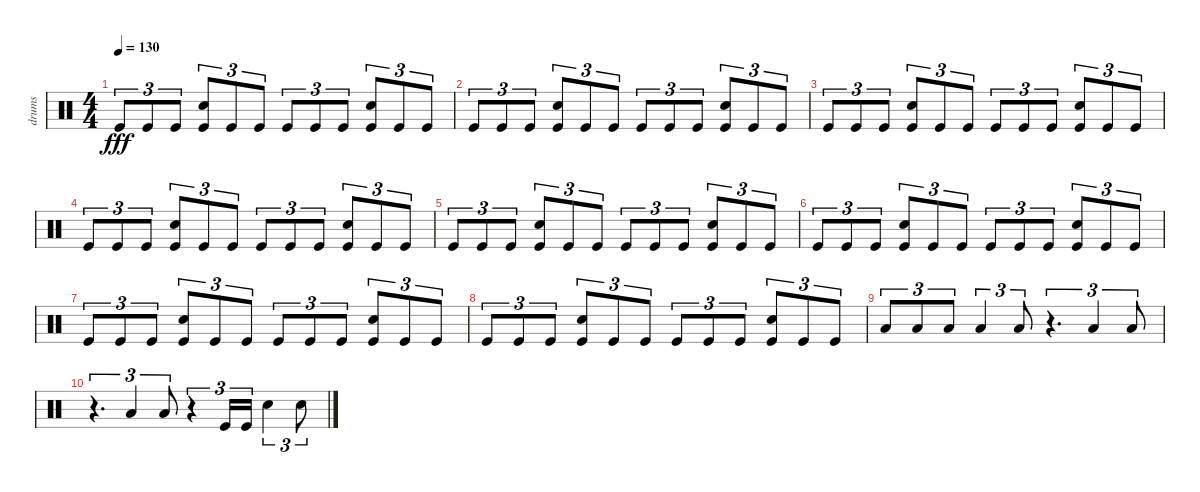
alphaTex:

\track ("drums" "drums") {instrument percussion}
\staff {score}
\articulation defaults
\ts (4 4)
\tempo 130
\clef neutral
\ks c "Kick (hit)".8{tu (3 2) dy fff} "Kick (hit)".8{tu (3 2)} "Kick (hit)".8{tu (3 2)}
("Electric Snare (hit)" "Kick (hit)").8{tu (3 2)} "Kick (hit)".8{tu (3 2)} "Kick (hit)".8{tu (3 2)} "Kick (hit)".8{tu (3 2)} "Kick (hit)".8{tu (3 2)} "Kick (hit)".8{tu (3 2)} ("Electric Snare (hit)" "Kick (hit)").8{tu (3 2)} "Kick (hit)".8{tu (3 2)} "Kick (hit)".8{tu (3 2)} |
"Kick (hit)".8{tu (3 2)} "Kick (hit)".8{tu (3 2)} "Kick (hit)".8{tu (3 2)} ("Electric Snare (hit)" "Kick (hit)").8{tu (3 2)} "Kick (hit)".8{tu (3 2)} "Kick (hit)".8{tu (3 2)} "Kick (hit)".8{tu (3 2)} "Kick (hit)".8{tu (3 2)} "Kick (hit)".8{tu (3 2)} ("Electric Snare (hit)" "Kick (hit)").8{tu (3 2)} "Kick (hit)".8{tu (3 2)} "Kick (hit)".8{tu (3 2)} |
"Kick (hit)".8{tu (3 2)} "Kick (hit)".8{tu (3 2)} "Kick (hit)".8{tu (3 2)} ("Electric Snare (hit)" "Kick (hit)").8{tu (3 2)} "Kick (hit)".8{tu (3 2)} "Kick (hit)".8{tu (3 2)} "Kick (hit)".8{tu (3 2)} "Kick (hit)".8{tu (3 2)} "Kick (hit)".8{tu (3 2)} ("Electric Snare (hit)" "Kick (hit)").8{tu (3 2)} "Kick (hit)".8{tu (3 2)} "Kick (hit)".8{tu (3 2)} |
"Kick (hit)".8{tu (3 2)} "Kick (hit)".8{tu (3 2)} "Kick (hit)".8{tu (3 2)} ("Electric Snare (hit)" "Kick (hit)").8{tu (3 2)} "Kick (hit)".8{tu (3 2)} "Kick (hit)".8{tu (3 2)} "Kick (hit)".8{tu (3 2)} "Kick (hit)".8{tu (3 2)} "Kick (hit)".8{tu (3 2)} ("Electric Snare (hit)" "Kick (hit)").8{tu (3 2)} "Kick (hit)".8{tu (3 2)} "Kick (hit)".8{tu (3 2)} |
"Kick (hit)".8{tu (3 2)} "Kick (hit)".8{tu (3 2)} "Kick (hit)".8{tu (3 2)} ("Electric Snare (hit)" "Kick (hit)").8{tu (3 2)} "Kick (hit)".8{tu (3 2)} "Kick (hit)".8{tu (3 2)} "Kick (hit)".8{tu (3 2)} "Kick (hit)".8{tu (3 2)} "Kick (hit)".8{tu (3 2)} ("Electric Snare (hit)" "Kick (hit)").8{tu (3 2)} "Kick (hit)".8{tu (3 2)} "Kick (hit)".8{tu (3 2)} |
"Kick (hit)".8{tu (3 2)} "Kick (hit)".8{tu (3 2)} "Kick (hit)".8{tu (3 2)} ("Electric Snare (hit)" "Kick (hit)").8{tu (3 2)} "Kick (hit)".8{tu (3 2)} "Kick (hit)".8{tu (3 2)} "Kick (hit)".8{tu (3 2)} "Kick (hit)".8{tu (3 2)} "Kick (hit)".8{tu (3 2)} ("Electric Snare (hit)" "Kick (hit)").8{tu (3 2)} "Kick (hit)".8{tu (3 2)} "Kick (hit)".8{tu (3 2)} |
"Kick (hit)".8{tu (3 2)} "Kick (hit)".8{tu (3 2)} "Kick (hit)".8{tu (3 2)} ("Electric Snare (hit)" "Kick (hit)").8{tu (3 2)} "Kick (hit)".8{tu (3 2)} "Kick (hit)".8{tu (3 2)} "Kick (hit)".8{tu (3 2)} "Kick (hit)".8{tu (3 2)} "Kick (hit)".8{tu (3 2)} ("Electric Snare (hit)" "Kick (hit)").8{tu (3 2)} "Kick (hit)".8{tu (3 2)} "Kick (hit)".8{tu (3 2)} |
"Kick (hit)".8{tu (3 2)} "Kick (hit)".8{tu (3 2)} "Kick (hit)".8{tu (3 2)} ("Electric Snare (hit)" "Kick (hit)").8{tu (3 2)} "Kick (hit)".8{tu (3 2)} "Kick (hit)".8{tu (3 2)} "Kick (hit)".8{tu (3 2)} "Kick (hit)".8{tu (3 2)} "Kick (hit)".8{tu (3 2)} ("Electric Snare (hit)" "Kick (hit)").8{tu (3 2)} "Kick (hit)".8{tu (3 2)} "Kick (hit)".8{tu (3 2)} |
"Low Floor Tom (hit)".8{tu (3 2)} "Low Floor Tom (hit)".8{tu (3 2)} "Low Floor Tom (hit)".8{tu (3 2)} "Low Floor Tom (hit)".4{tu (3 2)} "Low Floor Tom (hit)".8{tu (3 2)} r.4{d tu (3 2)} "Low Floor Tom (hit)".4{tu (3 2)} "Low Floor Tom (hit)".8{tu (3 2)} |
r.4{d tu (3 2)} "Low Floor Tom (hit)".4{tu (3 2)} "Low Floor Tom (hit)".8{tu (3 2)} r.4{tu (3 2)} "Kick (hit)".16{tu (3 2)} "Kick (hit)".16{tu (3 2)} "Electric Snare (hit)".4{tu (3 2)} "Electric Snare (hit)".8{tu (3 2)}
